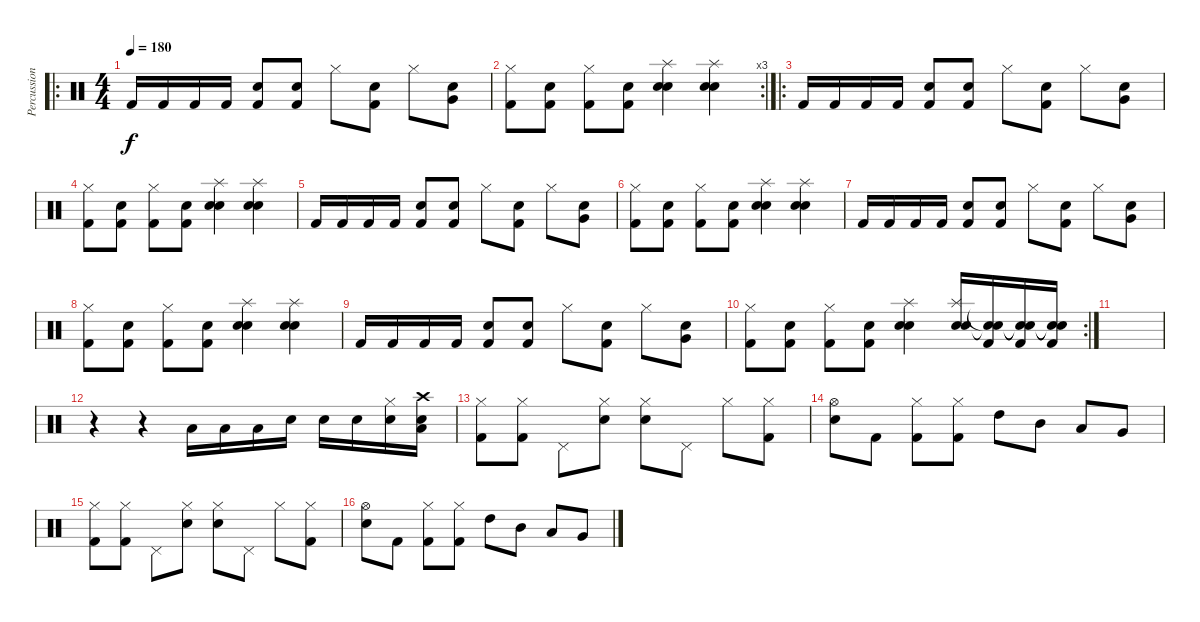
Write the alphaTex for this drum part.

\track ("Percussion" "Percussion") {instrument percussion}
\staff {score}
\articulation defaults
\ro
\ts (4 4)
\tempo 180
\clef neutral
\ks c "Kick (hit) 2".16{dy f} "Kick (hit) 2".16 "Kick (hit) 2".16 "Kick (hit) 2".16
("Electric Snare (hit)" "Kick (hit) 2").8 ("Electric Snare (hit)" "Kick (hit) 2").8 "Hi-Hat (closed)".8 ("Electric Snare (hit)" "Kick (hit) 2").8 "Hi-Hat (closed)".8 ("Electric Snare (hit)" "Very Low Tom (hit)").8 |
\rc 3
("Hi-Hat (closed)" "Kick (hit) 2").8 ("Electric Snare (hit)" "Kick (hit) 2").8 ("Hi-Hat (closed)" "Kick (hit) 2").8 ("Electric Snare (hit)" "Kick (hit) 2").8 ("Splash (hit)" "Snare (hit) 2" "Electric Snare (hit)").4 ("Splash (hit)" "Snare (hit) 2" "Electric Snare (hit)").4 |
\ro "Kick (hit) 2".16 "Kick (hit) 2".16 "Kick (hit) 2".16 "Kick (hit) 2".16
("Electric Snare (hit)" "Kick (hit) 2").8 ("Electric Snare (hit)" "Kick (hit) 2").8 "Hi-Hat (closed)".8 ("Electric Snare (hit)" "Kick (hit) 2").8 "Hi-Hat (closed)".8 ("Electric Snare (hit)" "Very Low Tom (hit)").8 |
("Hi-Hat (closed)" "Kick (hit) 2").8 ("Electric Snare (hit)" "Kick (hit) 2").8 ("Hi-Hat (closed)" "Kick (hit) 2").8 ("Electric Snare (hit)" "Kick (hit) 2").8 ("Splash (hit)" "Snare (hit) 2" "Electric Snare (hit)").4 ("Splash (hit)" "Snare (hit) 2" "Electric Snare (hit)").4 |
"Kick (hit) 2".16 "Kick (hit) 2".16 "Kick (hit) 2".16 "Kick (hit) 2".16 ("Electric Snare (hit)" "Kick (hit) 2").8 ("Electric Snare (hit)" "Kick (hit) 2").8 "Hi-Hat (closed)".8 ("Electric Snare (hit)" "Kick (hit) 2").8 "Hi-Hat (closed)".8 ("Electric Snare (hit)" "Very Low Tom (hit)").8 |
("Hi-Hat (closed)" "Kick (hit) 2").8 ("Electric Snare (hit)" "Kick (hit) 2").8 ("Hi-Hat (closed)" "Kick (hit) 2").8 ("Electric Snare (hit)" "Kick (hit) 2").8 ("Splash (hit)" "Snare (hit) 2" "Electric Snare (hit)").4 ("Splash (hit)" "Snare (hit) 2" "Electric Snare (hit)").4 |
"Kick (hit) 2".16 "Kick (hit) 2".16 "Kick (hit) 2".16 "Kick (hit) 2".16 ("Electric Snare (hit)" "Kick (hit) 2").8 ("Electric Snare (hit)" "Kick (hit) 2").8 "Hi-Hat (closed)".8 ("Electric Snare (hit)" "Kick (hit) 2").8 "Hi-Hat (closed)".8 ("Electric Snare (hit)" "Very Low Tom (hit)").8 |
("Hi-Hat (closed)" "Kick (hit) 2").8 ("Electric Snare (hit)" "Kick (hit) 2").8 ("Hi-Hat (closed)" "Kick (hit) 2").8 ("Electric Snare (hit)" "Kick (hit) 2").8 ("Splash (hit)" "Snare (hit) 2" "Electric Snare (hit)").4 ("Splash (hit)" "Snare (hit) 2" "Electric Snare (hit)").4 |
"Kick (hit) 2".16 "Kick (hit) 2".16 "Kick (hit) 2".16 "Kick (hit) 2".16 ("Electric Snare (hit)" "Kick (hit) 2").8 ("Electric Snare (hit)" "Kick (hit) 2").8 "Hi-Hat (closed)".8 ("Electric Snare (hit)" "Kick (hit) 2").8 "Hi-Hat (closed)".8 ("Electric Snare (hit)" "Very Low Tom (hit)").8 |
\rc 2
("Hi-Hat (closed)" "Kick (hit) 2").8 ("Electric Snare (hit)" "Kick (hit) 2").8 ("Hi-Hat (closed)" "Kick (hit) 2").8 ("Electric Snare (hit)" "Kick (hit) 2").8 ("Splash (hit)" "Snare (hit) 2" "Electric Snare (hit)").4 ("Splash (hit)" "Snare (hit) 2" "Electric Snare (hit)").16 ("Snare (hit)"{t} "Snare (hit)"{t} "Kick (hit) 2").16 ("Snare (hit)"{t} "Snare (hit)"{t} "Kick (hit) 2").16 ("Snare (hit)"{t} "Snare (hit)"{t} "Kick (hit) 2").16 |
|
r.4 r.4 "Low Tom (hit)".16 "Low Tom (hit)".16 "Low Tom (hit)".16 "Snare (hit) 2".16 "Snare (hit) 2".16 "Snare (hit) 2".16 ("Hi-Hat (closed)" "Electric Snare (hit)").16 ("Crash high (hit)" "Electric Snare (hit)" "Low Floor Tom (hit)").16 |
("Hi-Hat (closed)" "Kick (hit) 2").8 ("Hi-Hat (closed)" "Kick (hit) 2").8 "Pedal Hi-Hat (hit)".8 ("Hi-Hat (closed)" "Snare (hit) 2").8 ("Hi-Hat (closed)" "Snare (hit) 2").8 "Pedal Hi-Hat (hit)".8 "Hi-Hat (closed)".8 ("Hi-Hat (closed)" "Kick (hit) 2").8 |
("Hi-Hat (open)" "Snare (hit) 2").8 "Kick (hit) 2".8 ("Hi-Hat (closed)" "Kick (hit) 2").8 ("Hi-Hat (closed)" "Kick (hit) 2").8 "High Tom (hit)".8 "Mid Tom (hit)".8 "Low Tom (hit)".8 "Very Low Tom (hit)".8 |
("Hi-Hat (closed)" "Kick (hit) 2").8 ("Hi-Hat (closed)" "Kick (hit) 2").8 "Pedal Hi-Hat (hit)".8 ("Hi-Hat (closed)" "Snare (hit) 2").8 ("Hi-Hat (closed)" "Snare (hit) 2").8 "Pedal Hi-Hat (hit)".8 "Hi-Hat (closed)".8 ("Hi-Hat (closed)" "Kick (hit) 2").8 |
("Hi-Hat (open)" "Snare (hit) 2").8 "Kick (hit) 2".8 ("Hi-Hat (closed)" "Kick (hit) 2").8 ("Hi-Hat (closed)" "Kick (hit) 2").8 "High Tom (hit)".8 "Mid Tom (hit)".8 "Low Tom (hit)".8 "Very Low Tom (hit)".8
